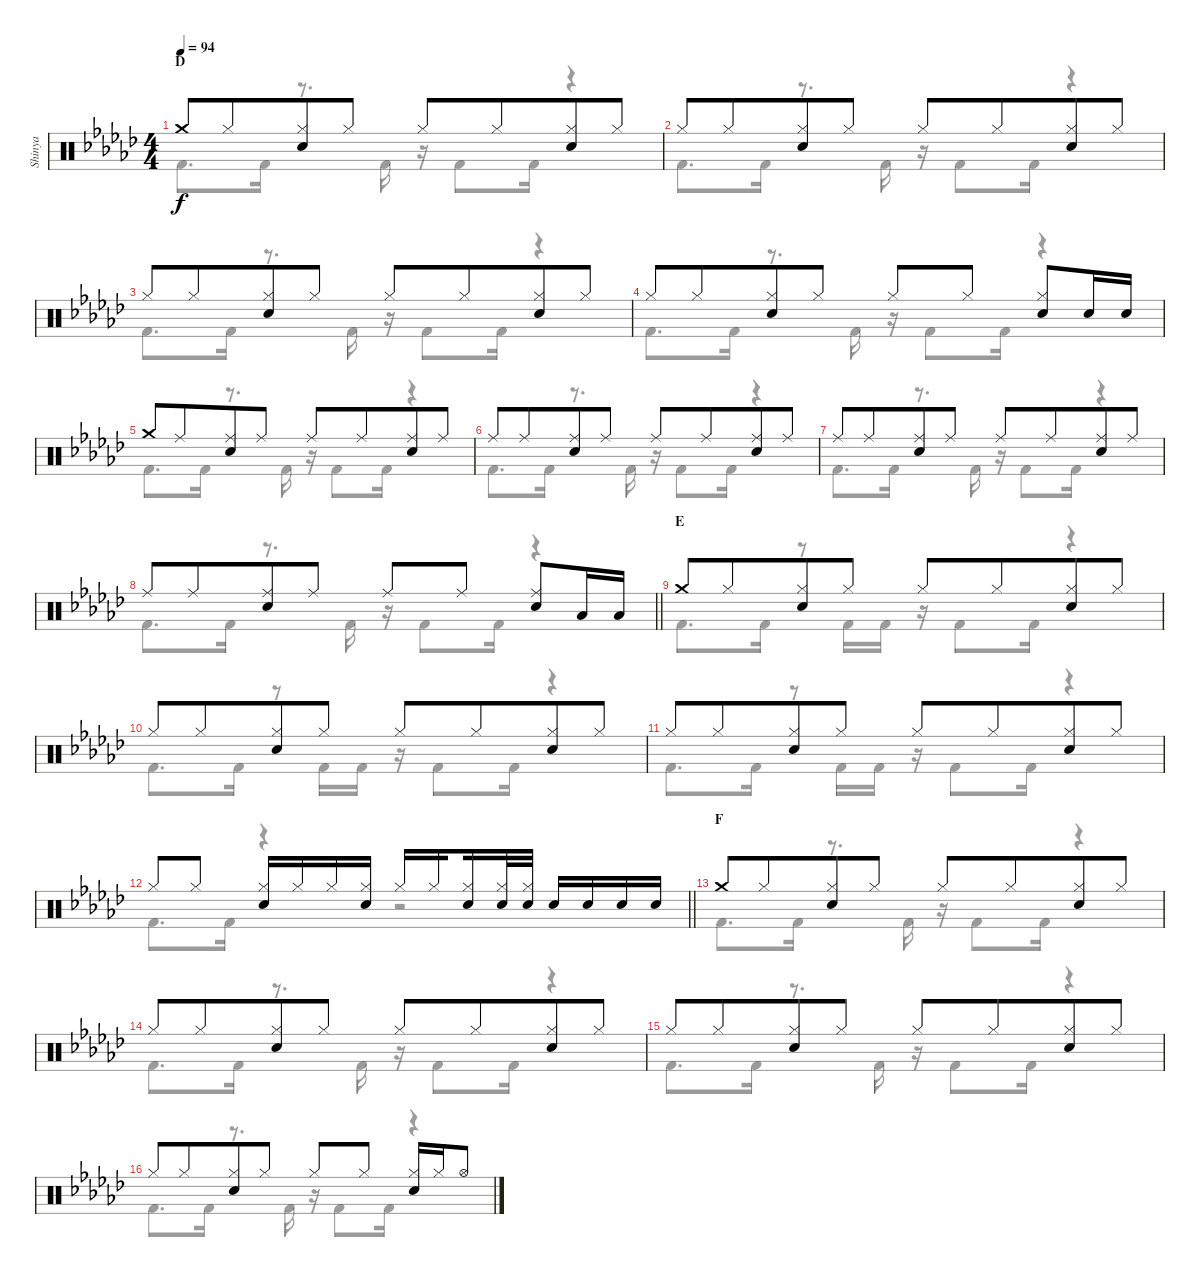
\track ("Shinya" "Shinya") {instrument percussion}
\staff {score}
\articulation defaults
\voice
\ts (4 4)
\section ("" "D")
\tempo 94
\clef neutral
\ks ebminor "Crash medium (hit)".8{dy f} "Hi-Hat (closed)".8{beam merge}
("Hi-Hat (closed)" "Snare (hit) 2").8 "Hi-Hat (closed)".8 "Hi-Hat (closed)".8 "Hi-Hat (closed)".8{beam merge} ("Hi-Hat (closed)" "Snare (hit) 2").8 "Hi-Hat (closed)".8 |
"Hi-Hat (closed)".8 "Hi-Hat (closed)".8{beam merge} ("Hi-Hat (closed)" "Snare (hit) 2").8 "Hi-Hat (closed)".8 "Hi-Hat (closed)".8 "Hi-Hat (closed)".8{beam merge} ("Hi-Hat (closed)" "Snare (hit) 2").8 "Hi-Hat (closed)".8 |
"Hi-Hat (closed)".8 "Hi-Hat (closed)".8{beam merge} ("Hi-Hat (closed)" "Snare (hit) 2").8 "Hi-Hat (closed)".8 "Hi-Hat (closed)".8 "Hi-Hat (closed)".8{beam merge} ("Hi-Hat (closed)" "Snare (hit) 2").8 "Hi-Hat (closed)".8 |
"Hi-Hat (closed)".8 "Hi-Hat (closed)".8{beam merge} ("Hi-Hat (closed)" "Snare (hit) 2").8 "Hi-Hat (closed)".8 "Hi-Hat (closed)".8 "Hi-Hat (closed)".8{beam split} ("Hi-Hat (closed)" "Snare (hit) 2").8 "Snare (hit) 2".16 "Snare (hit) 2".16 |
"Crash medium (hit)".8 "Ride (middle)".8{beam merge} ("Ride (middle)" "Snare (hit) 2").8 "Ride (middle)".8 "Ride (middle)".8 "Ride (middle)".8{beam merge} ("Ride (middle)" "Snare (hit) 2").8 "Ride (middle)".8 |
"Ride (middle)".8 "Ride (middle)".8{beam merge} ("Ride (middle)" "Snare (hit) 2").8 "Ride (middle)".8 "Ride (middle)".8 "Ride (middle)".8{beam merge} ("Ride (middle)" "Snare (hit) 2").8 "Ride (middle)".8 |
"Ride (middle)".8 "Ride (middle)".8{beam merge} ("Ride (middle)" "Snare (hit) 2").8 "Ride (middle)".8 "Ride (middle)".8 "Ride (middle)".8{beam merge} ("Ride (middle)" "Snare (hit) 2").8 "Ride (middle)".8 |
\barLineRight lightlight "Ride (middle)".8 "Ride (middle)".8{beam merge}
("Ride (middle)" "Snare (hit) 2").8 "Ride (middle)".8 "Ride (middle)".8 "Ride (middle)".8{beam split} ("Ride (middle)" "Snare (hit) 2").8 "Low Tom (hit)".16 "Low Tom (hit)".16 |
\section ("" "E")
"Crash medium (hit)".8 "Hi-Hat (closed)".8{beam merge} ("Hi-Hat (closed)" "Snare (hit) 2").8 "Hi-Hat (closed)".8 "Hi-Hat (closed)".8 "Hi-Hat (closed)".8{beam merge} ("Hi-Hat (closed)" "Snare (hit) 2").8 "Hi-Hat (closed)".8 |
"Hi-Hat (closed)".8 "Hi-Hat (closed)".8{beam merge} ("Hi-Hat (closed)" "Snare (hit) 2").8 "Hi-Hat (closed)".8 "Hi-Hat (closed)".8 "Hi-Hat (closed)".8{beam merge} ("Hi-Hat (closed)" "Snare (hit) 2").8 "Hi-Hat (closed)".8 |
"Hi-Hat (closed)".8 "Hi-Hat (closed)".8{beam merge} ("Hi-Hat (closed)" "Snare (hit) 2").8 "Hi-Hat (closed)".8 "Hi-Hat (closed)".8 "Hi-Hat (closed)".8{beam merge} ("Hi-Hat (closed)" "Snare (hit) 2").8 "Hi-Hat (closed)".8 |
\barLineRight lightlight "Hi-Hat (closed)".8 "Hi-Hat (closed)".8
("Hi-Hat (closed)" "Snare (hit) 2").16 "Hi-Hat (closed)".16 "Hi-Hat (closed)".16 ("Hi-Hat (closed)" "Snare (hit) 2").16 "Hi-Hat (closed)".16 "Hi-Hat (closed)".16{beam splitsecondary} ("Hi-Hat (closed)" "Snare (hit) 2").16 ("Hi-Hat (closed)" "Snare (hit) 2").32 ("Hi-Hat (closed)" "Snare (hit) 2").32 "Snare (hit) 2".16 "Snare (hit) 2".16 "Snare (hit) 2".16 "Snare (hit) 2".16 |
\section ("" "F")
"Crash medium (hit)".8 "Hi-Hat (closed)".8{beam merge} ("Hi-Hat (closed)" "Snare (hit) 2").8 "Hi-Hat (closed)".8 "Hi-Hat (closed)".8 "Hi-Hat (closed)".8{beam merge} ("Hi-Hat (closed)" "Snare (hit) 2").8 "Hi-Hat (closed)".8 |
"Hi-Hat (closed)".8 "Hi-Hat (closed)".8{beam merge} ("Hi-Hat (closed)" "Snare (hit) 2").8 "Hi-Hat (closed)".8 "Hi-Hat (closed)".8 "Hi-Hat (closed)".8{beam merge} ("Hi-Hat (closed)" "Snare (hit) 2").8 "Hi-Hat (closed)".8 |
"Hi-Hat (closed)".8 "Hi-Hat (closed)".8{beam merge} ("Hi-Hat (closed)" "Snare (hit) 2").8 "Hi-Hat (closed)".8 "Hi-Hat (closed)".8 "Hi-Hat (closed)".8{beam merge} ("Hi-Hat (closed)" "Snare (hit) 2").8 "Hi-Hat (closed)".8 |
"Hi-Hat (closed)".8 "Hi-Hat (closed)".8{beam merge} ("Hi-Hat (closed)" "Snare (hit) 2").8 "Hi-Hat (closed)".8 "Hi-Hat (closed)".8 "Hi-Hat (closed)".8 ("Hi-Hat (closed)" "Snare (hit) 2").16 "Hi-Hat (closed)".16 "Hi-Hat (open)".8
\voice
\clef neutral
\ottava regular
\simile none
\ks ebminor "Kick (hit) 2".8{d dy f} "Kick (hit) 2".16
r.8{d} "Kick (hit) 2".16 r.16 "Kick (hit) 2".8 "Kick (hit) 2".16 r.4 |
"Kick (hit) 2".8{d} "Kick (hit) 2".16 r.8{d} "Kick (hit) 2".16 r.16 "Kick (hit) 2".8 "Kick (hit) 2".16 r.4 |
"Kick (hit) 2".8{d} "Kick (hit) 2".16 r.8{d} "Kick (hit) 2".16 r.16 "Kick (hit) 2".8 "Kick (hit) 2".16 r.4 |
"Kick (hit) 2".8{d} "Kick (hit) 2".16 r.8{d} "Kick (hit) 2".16 r.16 "Kick (hit) 2".8 "Kick (hit) 2".16 r.4 |
"Kick (hit) 2".8{d} "Kick (hit) 2".16 r.8{d} "Kick (hit) 2".16 r.16 "Kick (hit) 2".8 "Kick (hit) 2".16 r.4 |
"Kick (hit) 2".8{d} "Kick (hit) 2".16 r.8{d} "Kick (hit) 2".16 r.16 "Kick (hit) 2".8 "Kick (hit) 2".16 r.4 |
"Kick (hit) 2".8{d} "Kick (hit) 2".16 r.8{d} "Kick (hit) 2".16 r.16 "Kick (hit) 2".8 "Kick (hit) 2".16 r.4 |
\barLineRight lightlight "Kick (hit) 2".8{d} "Kick (hit) 2".16
r.8{d} "Kick (hit) 2".16 r.16 "Kick (hit) 2".8 "Kick (hit) 2".16 r.4 |
"Kick (hit) 2".8{d} "Kick (hit) 2".16 r.8 "Kick (hit) 2".16 "Kick (hit) 2".16 r.16 "Kick (hit) 2".8 "Kick (hit) 2".16 r.4 |
"Kick (hit) 2".8{d} "Kick (hit) 2".16 r.8 "Kick (hit) 2".16 "Kick (hit) 2".16 r.16 "Kick (hit) 2".8 "Kick (hit) 2".16 r.4 |
"Kick (hit) 2".8{d} "Kick (hit) 2".16 r.8 "Kick (hit) 2".16 "Kick (hit) 2".16 r.16 "Kick (hit) 2".8 "Kick (hit) 2".16 r.4 |
\barLineRight lightlight "Kick (hit) 2".8{d} "Kick (hit) 2".16
r.4 r.2 |
"Kick (hit) 2".8{d} "Kick (hit) 2".16 r.8{d} "Kick (hit) 2".16 r.16 "Kick (hit) 2".8 "Kick (hit) 2".16 r.4 |
"Kick (hit) 2".8{d} "Kick (hit) 2".16 r.8{d} "Kick (hit) 2".16 r.16 "Kick (hit) 2".8 "Kick (hit) 2".16 r.4 |
"Kick (hit) 2".8{d} "Kick (hit) 2".16 r.8{d} "Kick (hit) 2".16 r.16 "Kick (hit) 2".8 "Kick (hit) 2".16 r.4 |
"Kick (hit) 2".8{d} "Kick (hit) 2".16 r.8{d} "Kick (hit) 2".16 r.16 "Kick (hit) 2".8 "Kick (hit) 2".16 r.4
